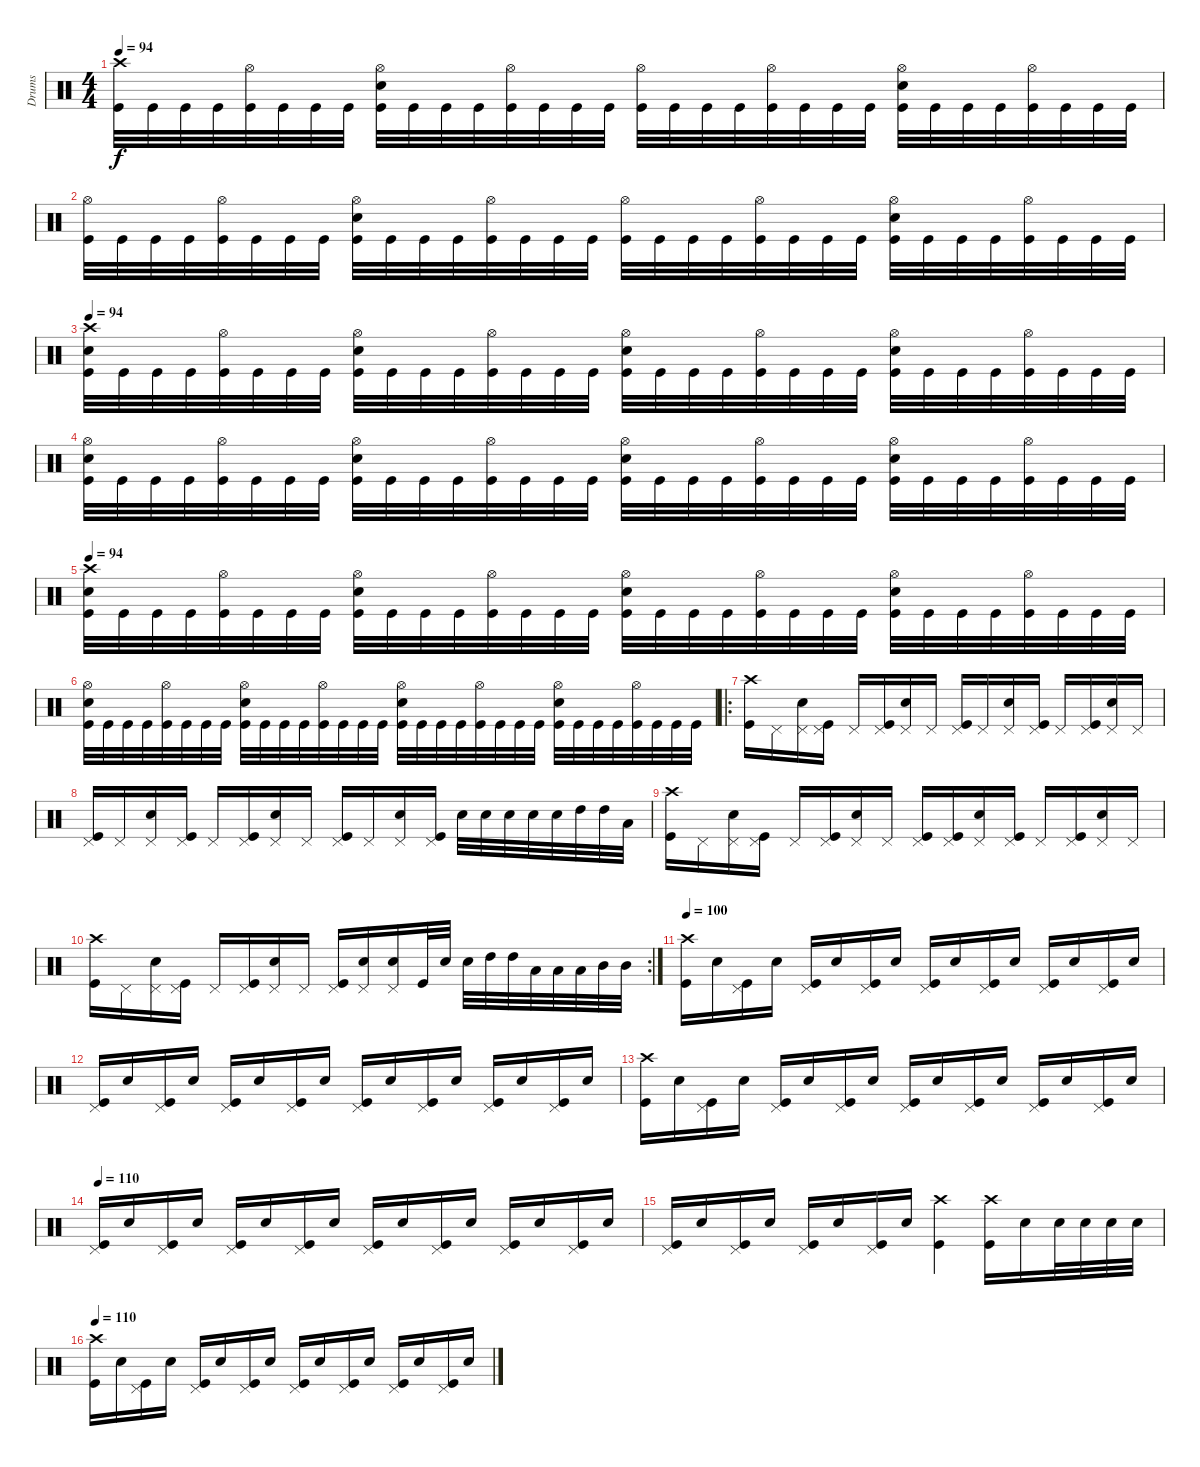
\track ("Drums" "Drums") {instrument percussion}
\staff {score}
\articulation defaults
\ts (4 4)
\tempo 94
\clef neutral
\ks c
("Crash high (hit)" "Kick (hit)").32{dy f} "Kick (hit)".32 "Kick (hit)".32 "Kick (hit)".32 ("Hi-Hat (open)" "Kick (hit)").32 "Kick (hit)".32 "Kick (hit)".32 "Kick (hit)".32 ("Hi-Hat (open)" "Electric Snare (hit)" "Kick (hit)").32 "Kick (hit)".32 "Kick (hit)".32 "Kick (hit)".32 ("Hi-Hat (open)" "Kick (hit)").32 "Kick (hit)".32 "Kick (hit)".32 "Kick (hit)".32 ("Hi-Hat (open)" "Kick (hit)").32 "Kick (hit)".32 "Kick (hit)".32 "Kick (hit)".32 ("Hi-Hat (open)" "Kick (hit)").32 "Kick (hit)".32 "Kick (hit)".32 "Kick (hit)".32 ("Hi-Hat (open)" "Electric Snare (hit)" "Kick (hit)").32 "Kick (hit)".32 "Kick (hit)".32 "Kick (hit)".32 ("Hi-Hat (open)" "Kick (hit)").32 "Kick (hit)".32 "Kick (hit)".32 "Kick (hit)".32 |
("Hi-Hat (open)" "Kick (hit)").32 "Kick (hit)".32 "Kick (hit)".32 "Kick (hit)".32 ("Hi-Hat (open)" "Kick (hit)").32 "Kick (hit)".32 "Kick (hit)".32 "Kick (hit)".32 ("Hi-Hat (open)" "Electric Snare (hit)" "Kick (hit)").32 "Kick (hit)".32 "Kick (hit)".32 "Kick (hit)".32 ("Hi-Hat (open)" "Kick (hit)").32 "Kick (hit)".32 "Kick (hit)".32 "Kick (hit)".32 ("Hi-Hat (open)" "Kick (hit)").32 "Kick (hit)".32 "Kick (hit)".32 "Kick (hit)".32 ("Hi-Hat (open)" "Kick (hit)").32 "Kick (hit)".32 "Kick (hit)".32 "Kick (hit)".32 ("Hi-Hat (open)" "Electric Snare (hit)" "Kick (hit)").32 "Kick (hit)".32 "Kick (hit)".32 "Kick (hit)".32 ("Hi-Hat (open)" "Kick (hit)").32 "Kick (hit)".32 "Kick (hit)".32 "Kick (hit)".32 |
\tempo 94
("Crash high (hit)" "Electric Snare (hit)" "Kick (hit)").32 "Kick (hit)".32 "Kick (hit)".32 "Kick (hit)".32 ("Hi-Hat (open)" "Kick (hit)").32 "Kick (hit)".32 "Kick (hit)".32 "Kick (hit)".32 ("Hi-Hat (open)" "Electric Snare (hit)" "Kick (hit)").32 "Kick (hit)".32 "Kick (hit)".32 "Kick (hit)".32 ("Hi-Hat (open)" "Kick (hit)").32 "Kick (hit)".32 "Kick (hit)".32 "Kick (hit)".32 ("Hi-Hat (open)" "Electric Snare (hit)" "Kick (hit)").32 "Kick (hit)".32 "Kick (hit)".32 "Kick (hit)".32 ("Hi-Hat (open)" "Kick (hit)").32 "Kick (hit)".32 "Kick (hit)".32 "Kick (hit)".32 ("Hi-Hat (open)" "Electric Snare (hit)" "Kick (hit)").32 "Kick (hit)".32 "Kick (hit)".32 "Kick (hit)".32 ("Hi-Hat (open)" "Kick (hit)").32 "Kick (hit)".32 "Kick (hit)".32 "Kick (hit)".32 |
("Hi-Hat (open)" "Electric Snare (hit)" "Kick (hit)").32 "Kick (hit)".32 "Kick (hit)".32 "Kick (hit)".32 ("Hi-Hat (open)" "Kick (hit)").32 "Kick (hit)".32 "Kick (hit)".32 "Kick (hit)".32 ("Hi-Hat (open)" "Electric Snare (hit)" "Kick (hit)").32 "Kick (hit)".32 "Kick (hit)".32 "Kick (hit)".32 ("Hi-Hat (open)" "Kick (hit)").32 "Kick (hit)".32 "Kick (hit)".32 "Kick (hit)".32 ("Hi-Hat (open)" "Electric Snare (hit)" "Kick (hit)").32 "Kick (hit)".32 "Kick (hit)".32 "Kick (hit)".32 ("Hi-Hat (open)" "Kick (hit)").32 "Kick (hit)".32 "Kick (hit)".32 "Kick (hit)".32 ("Hi-Hat (open)" "Electric Snare (hit)" "Kick (hit)").32 "Kick (hit)".32 "Kick (hit)".32 "Kick (hit)".32 ("Hi-Hat (open)" "Kick (hit)").32 "Kick (hit)".32 "Kick (hit)".32 "Kick (hit)".32 |
\tempo 94
("Crash high (hit)" "Electric Snare (hit)" "Kick (hit)").32 "Kick (hit)".32 "Kick (hit)".32 "Kick (hit)".32 ("Hi-Hat (open)" "Kick (hit)").32 "Kick (hit)".32 "Kick (hit)".32 "Kick (hit)".32 ("Hi-Hat (open)" "Electric Snare (hit)" "Kick (hit)").32 "Kick (hit)".32 "Kick (hit)".32 "Kick (hit)".32 ("Hi-Hat (open)" "Kick (hit)").32 "Kick (hit)".32 "Kick (hit)".32 "Kick (hit)".32 ("Hi-Hat (open)" "Electric Snare (hit)" "Kick (hit)").32 "Kick (hit)".32 "Kick (hit)".32 "Kick (hit)".32 ("Hi-Hat (open)" "Kick (hit)").32 "Kick (hit)".32 "Kick (hit)".32 "Kick (hit)".32 ("Hi-Hat (open)" "Electric Snare (hit)" "Kick (hit)").32 "Kick (hit)".32 "Kick (hit)".32 "Kick (hit)".32 ("Hi-Hat (open)" "Kick (hit)").32 "Kick (hit)".32 "Kick (hit)".32 "Kick (hit)".32 |
("Hi-Hat (open)" "Electric Snare (hit)" "Kick (hit)").32 "Kick (hit)".32 "Kick (hit)".32 "Kick (hit)".32 ("Hi-Hat (open)" "Kick (hit)").32 "Kick (hit)".32 "Kick (hit)".32 "Kick (hit)".32 ("Hi-Hat (open)" "Electric Snare (hit)" "Kick (hit)").32 "Kick (hit)".32 "Kick (hit)".32 "Kick (hit)".32 ("Hi-Hat (open)" "Kick (hit)").32 "Kick (hit)".32 "Kick (hit)".32 "Kick (hit)".32 ("Hi-Hat (open)" "Electric Snare (hit)" "Kick (hit)").32 "Kick (hit)".32 "Kick (hit)".32 "Kick (hit)".32 ("Hi-Hat (open)" "Kick (hit)").32 "Kick (hit)".32 "Kick (hit)".32 "Kick (hit)".32 ("Hi-Hat (open)" "Electric Snare (hit)" "Kick (hit)").32 "Kick (hit)".32 "Kick (hit)".32 "Kick (hit)".32 ("Hi-Hat (open)" "Kick (hit)").32 "Kick (hit)".32 "Kick (hit)".32 "Kick (hit)".32 |
\ro
("Crash high (hit)" "Kick (hit)").16 "Pedal Hi-Hat (hit)".16 ("Pedal Hi-Hat (hit)" "Electric Snare (hit)").16 ("Pedal Hi-Hat (hit)" "Kick (hit)").16 "Pedal Hi-Hat (hit)".16 ("Pedal Hi-Hat (hit)" "Kick (hit)").16 ("Pedal Hi-Hat (hit)" "Electric Snare (hit)").16 "Pedal Hi-Hat (hit)".16 ("Pedal Hi-Hat (hit)" "Kick (hit)").16 "Pedal Hi-Hat (hit)".16 ("Pedal Hi-Hat (hit)" "Electric Snare (hit)").16 ("Pedal Hi-Hat (hit)" "Kick (hit)").16 "Pedal Hi-Hat (hit)".16 ("Pedal Hi-Hat (hit)" "Kick (hit)").16 ("Pedal Hi-Hat (hit)" "Electric Snare (hit)").16 "Pedal Hi-Hat (hit)".16 |
("Pedal Hi-Hat (hit)" "Kick (hit)").16 "Pedal Hi-Hat (hit)".16 ("Pedal Hi-Hat (hit)" "Electric Snare (hit)").16 ("Pedal Hi-Hat (hit)" "Kick (hit)").16 "Pedal Hi-Hat (hit)".16 ("Pedal Hi-Hat (hit)" "Kick (hit)").16 ("Pedal Hi-Hat (hit)" "Electric Snare (hit)").16 "Pedal Hi-Hat (hit)".16 ("Pedal Hi-Hat (hit)" "Kick (hit)").16 "Pedal Hi-Hat (hit)".16 ("Pedal Hi-Hat (hit)" "Electric Snare (hit)").16 ("Pedal Hi-Hat (hit)" "Kick (hit)").16 "Electric Snare (hit)".32 "Electric Snare (hit)".32 "Electric Snare (hit)".32 "Electric Snare (hit)".32 "Electric Snare (hit)".32 "High Tom (hit)".32 "High Tom (hit)".32 "Low Tom (hit)".32 |
("Crash high (hit)" "Kick (hit)").16 "Pedal Hi-Hat (hit)".16 ("Pedal Hi-Hat (hit)" "Electric Snare (hit)").16 ("Pedal Hi-Hat (hit)" "Kick (hit)").16 "Pedal Hi-Hat (hit)".16 ("Pedal Hi-Hat (hit)" "Kick (hit)").16 ("Pedal Hi-Hat (hit)" "Electric Snare (hit)").16 "Pedal Hi-Hat (hit)".16 ("Pedal Hi-Hat (hit)" "Kick (hit)").16 ("Pedal Hi-Hat (hit)" "Kick (hit)").16 ("Pedal Hi-Hat (hit)" "Electric Snare (hit)").16 ("Pedal Hi-Hat (hit)" "Kick (hit)").16 "Pedal Hi-Hat (hit)".16 ("Pedal Hi-Hat (hit)" "Kick (hit)").16 ("Pedal Hi-Hat (hit)" "Electric Snare (hit)").16 "Pedal Hi-Hat (hit)".16 |
\rc 2
("Crash high (hit)" "Kick (hit)").16 "Pedal Hi-Hat (hit)".16 ("Pedal Hi-Hat (hit)" "Electric Snare (hit)").16 ("Pedal Hi-Hat (hit)" "Kick (hit)").16 "Pedal Hi-Hat (hit)".16 ("Pedal Hi-Hat (hit)" "Kick (hit)").16 ("Pedal Hi-Hat (hit)" "Electric Snare (hit)").16 "Pedal Hi-Hat (hit)".16 ("Pedal Hi-Hat (hit)" "Kick (hit)").16 ("Pedal Hi-Hat (hit)" "Electric Snare (hit)").16 ("Pedal Hi-Hat (hit)" "Electric Snare (hit)").16 "Kick (hit)".32 "Electric Snare (hit)".32 "Electric Snare (hit)".32 "High Tom (hit)".32 "High Tom (hit)".32 "Low Tom (hit)".32 "Low Tom (hit)".32 "Low Tom (hit)".32 "Mid Tom (hit)".32 "Mid Tom (hit)".32 |
\tempo 110
\tempo 100
("Crash high (hit)" "Kick (hit)").16 "Electric Snare (hit)".16 ("Pedal Hi-Hat (hit)" "Kick (hit)").16 "Electric Snare (hit)".16 ("Pedal Hi-Hat (hit)" "Kick (hit)").16 "Electric Snare (hit)".16 ("Pedal Hi-Hat (hit)" "Kick (hit)").16 "Electric Snare (hit)".16 ("Pedal Hi-Hat (hit)" "Kick (hit)").16 "Electric Snare (hit)".16 ("Pedal Hi-Hat (hit)" "Kick (hit)").16 "Electric Snare (hit)".16 ("Pedal Hi-Hat (hit)" "Kick (hit)").16 "Electric Snare (hit)".16 ("Pedal Hi-Hat (hit)" "Kick (hit)").16 "Electric Snare (hit)".16 |
("Pedal Hi-Hat (hit)" "Kick (hit)").16 "Electric Snare (hit)".16 ("Pedal Hi-Hat (hit)" "Kick (hit)").16 "Electric Snare (hit)".16 ("Pedal Hi-Hat (hit)" "Kick (hit)").16 "Electric Snare (hit)".16 ("Pedal Hi-Hat (hit)" "Kick (hit)").16 "Electric Snare (hit)".16 ("Pedal Hi-Hat (hit)" "Kick (hit)").16 "Electric Snare (hit)".16 ("Pedal Hi-Hat (hit)" "Kick (hit)").16 "Electric Snare (hit)".16 ("Pedal Hi-Hat (hit)" "Kick (hit)").16 "Electric Snare (hit)".16 ("Pedal Hi-Hat (hit)" "Kick (hit)").16 "Electric Snare (hit)".16 |
("Crash high (hit)" "Kick (hit)").16 "Electric Snare (hit)".16 ("Pedal Hi-Hat (hit)" "Kick (hit)").16 "Electric Snare (hit)".16 ("Pedal Hi-Hat (hit)" "Kick (hit)").16 "Electric Snare (hit)".16 ("Pedal Hi-Hat (hit)" "Kick (hit)").16 "Electric Snare (hit)".16 ("Pedal Hi-Hat (hit)" "Kick (hit)").16 "Electric Snare (hit)".16 ("Pedal Hi-Hat (hit)" "Kick (hit)").16 "Electric Snare (hit)".16 ("Pedal Hi-Hat (hit)" "Kick (hit)").16 "Electric Snare (hit)".16 ("Pedal Hi-Hat (hit)" "Kick (hit)").16 "Electric Snare (hit)".16 |
\tempo 110
("Pedal Hi-Hat (hit)" "Kick (hit)").16 "Electric Snare (hit)".16 ("Pedal Hi-Hat (hit)" "Kick (hit)").16 "Electric Snare (hit)".16 ("Pedal Hi-Hat (hit)" "Kick (hit)").16 "Electric Snare (hit)".16 ("Pedal Hi-Hat (hit)" "Kick (hit)").16 "Electric Snare (hit)".16 ("Pedal Hi-Hat (hit)" "Kick (hit)").16 "Electric Snare (hit)".16 ("Pedal Hi-Hat (hit)" "Kick (hit)").16 "Electric Snare (hit)".16 ("Pedal Hi-Hat (hit)" "Kick (hit)").16 "Electric Snare (hit)".16 ("Pedal Hi-Hat (hit)" "Kick (hit)").16 "Electric Snare (hit)".16 |
("Pedal Hi-Hat (hit)" "Kick (hit)").16 "Electric Snare (hit)".16 ("Pedal Hi-Hat (hit)" "Kick (hit)").16 "Electric Snare (hit)".16 ("Pedal Hi-Hat (hit)" "Kick (hit)").16 "Electric Snare (hit)".16 ("Pedal Hi-Hat (hit)" "Kick (hit)").16 "Electric Snare (hit)".16 ("Crash high (hit)" "Kick (hit)").4 ("Crash high (hit)" "Kick (hit)").16 "Electric Snare (hit)".16 "Electric Snare (hit)".32 "Electric Snare (hit)".32 "Electric Snare (hit)".32 "Electric Snare (hit)".32 |
\tempo 110
("Crash high (hit)" "Kick (hit)").16 "Electric Snare (hit)".16 ("Pedal Hi-Hat (hit)" "Kick (hit)").16 "Electric Snare (hit)".16 ("Pedal Hi-Hat (hit)" "Kick (hit)").16 "Electric Snare (hit)".16 ("Pedal Hi-Hat (hit)" "Kick (hit)").16 "Electric Snare (hit)".16 ("Pedal Hi-Hat (hit)" "Kick (hit)").16 "Electric Snare (hit)".16 ("Pedal Hi-Hat (hit)" "Kick (hit)").16 "Electric Snare (hit)".16 ("Pedal Hi-Hat (hit)" "Kick (hit)").16 "Electric Snare (hit)".16 ("Pedal Hi-Hat (hit)" "Kick (hit)").16 "Electric Snare (hit)".16
